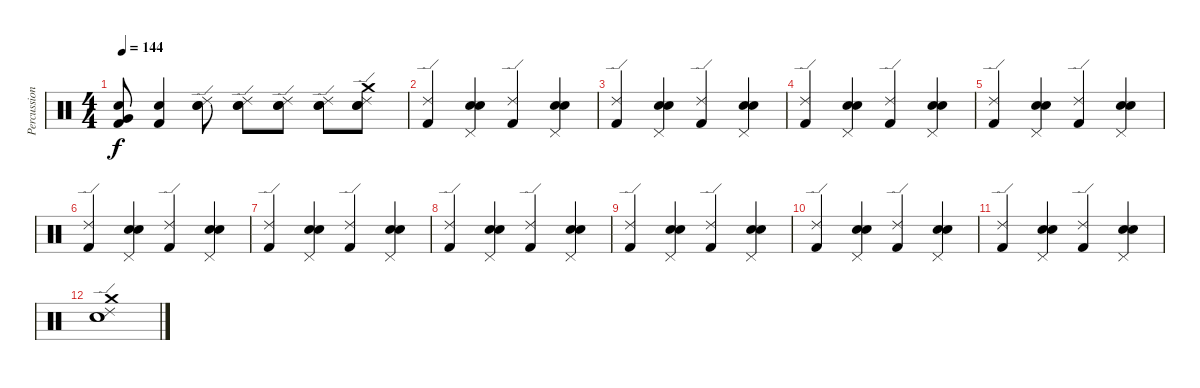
\track ("Percussions" "Percussion") {instrument percussion}
\staff {score}
\articulation defaults
\ts (4 4)
\tempo 144
\clef neutral
\ks c
("Kick (hit) 2" "Very Low Tom (hit)" "Electric Snare (hit)").8{dy f} ("Kick (hit) 2" "Electric Snare (hit)").4 ("Snare (hit) 2" "Electric Snare (hit)" "Ride (edge) 2").8 ("Snare (hit) 2" "Electric Snare (hit)" "Ride (edge) 2").8 ("Snare (hit) 2" "Electric Snare (hit)" "Ride (edge) 2").8 ("Snare (hit) 2" "Electric Snare (hit)" "Ride (edge) 2").8 ("Snare (hit) 2" "Electric Snare (hit)" "Ride (edge) 2" "Crash medium (hit)").8 |
("Kick (hit) 2" "Ride (edge) 2").4 ("Snare (hit) 2" "Electric Snare (hit)" "Pedal Hi-Hat (hit)").4 ("Kick (hit) 2" "Ride (edge) 2").4 ("Snare (hit) 2" "Electric Snare (hit)" "Pedal Hi-Hat (hit)").4 |
("Kick (hit) 2" "Ride (edge) 2").4 ("Snare (hit) 2" "Electric Snare (hit)" "Pedal Hi-Hat (hit)").4 ("Kick (hit) 2" "Ride (edge) 2").4 ("Snare (hit) 2" "Electric Snare (hit)" "Pedal Hi-Hat (hit)").4 |
("Kick (hit) 2" "Ride (edge) 2").4 ("Snare (hit) 2" "Electric Snare (hit)" "Pedal Hi-Hat (hit)").4 ("Kick (hit) 2" "Ride (edge) 2").4 ("Snare (hit) 2" "Electric Snare (hit)" "Pedal Hi-Hat (hit)").4 |
("Kick (hit) 2" "Ride (edge) 2").4 ("Snare (hit) 2" "Electric Snare (hit)" "Pedal Hi-Hat (hit)").4 ("Kick (hit) 2" "Ride (edge) 2").4 ("Snare (hit) 2" "Electric Snare (hit)" "Pedal Hi-Hat (hit)").4 |
("Kick (hit) 2" "Ride (edge) 2").4 ("Snare (hit) 2" "Electric Snare (hit)" "Pedal Hi-Hat (hit)").4 ("Kick (hit) 2" "Ride (edge) 2").4 ("Snare (hit) 2" "Electric Snare (hit)" "Pedal Hi-Hat (hit)").4 |
("Kick (hit) 2" "Ride (edge) 2").4 ("Snare (hit) 2" "Electric Snare (hit)" "Pedal Hi-Hat (hit)").4 ("Kick (hit) 2" "Ride (edge) 2").4 ("Snare (hit) 2" "Electric Snare (hit)" "Pedal Hi-Hat (hit)").4 |
("Kick (hit) 2" "Ride (edge) 2").4 ("Snare (hit) 2" "Electric Snare (hit)" "Pedal Hi-Hat (hit)").4 ("Kick (hit) 2" "Ride (edge) 2").4 ("Snare (hit) 2" "Electric Snare (hit)" "Pedal Hi-Hat (hit)").4 |
("Kick (hit) 2" "Ride (edge) 2").4 ("Snare (hit) 2" "Electric Snare (hit)" "Pedal Hi-Hat (hit)").4 ("Kick (hit) 2" "Ride (edge) 2").4 ("Snare (hit) 2" "Electric Snare (hit)" "Pedal Hi-Hat (hit)").4 |
("Kick (hit) 2" "Ride (edge) 2").4 ("Snare (hit) 2" "Electric Snare (hit)" "Pedal Hi-Hat (hit)").4 ("Kick (hit) 2" "Ride (edge) 2").4 ("Snare (hit) 2" "Electric Snare (hit)" "Pedal Hi-Hat (hit)").4 |
("Kick (hit) 2" "Ride (edge) 2").4 ("Snare (hit) 2" "Electric Snare (hit)" "Pedal Hi-Hat (hit)").4 ("Kick (hit) 2" "Ride (edge) 2").4 ("Snare (hit) 2" "Electric Snare (hit)" "Pedal Hi-Hat (hit)").4 |
("Snare (hit) 2" "Electric Snare (hit)" "Ride (edge) 2" "Crash medium (hit)").1
